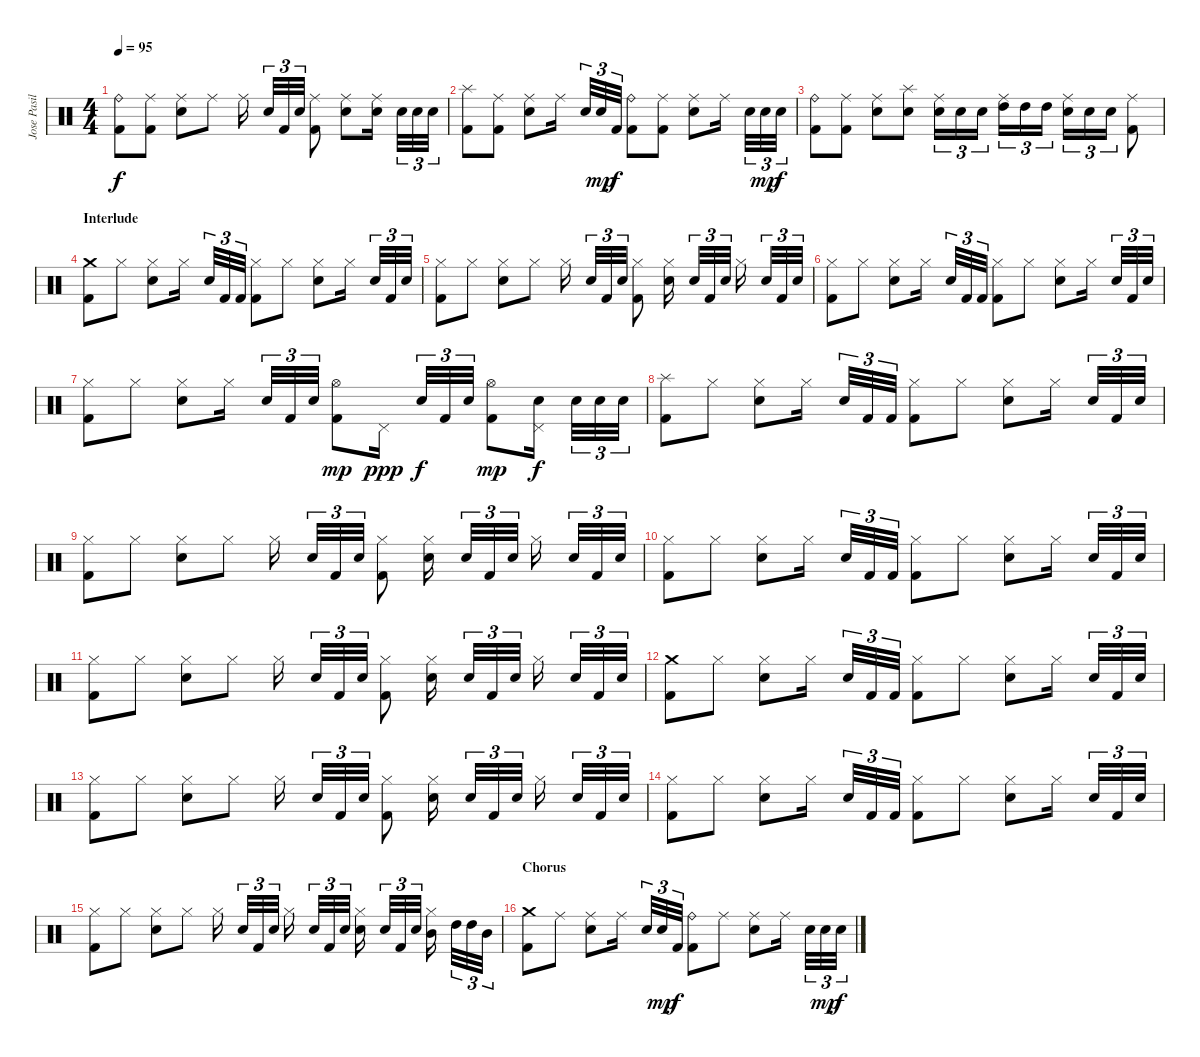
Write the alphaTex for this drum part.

\track ("Jose Pasillas II - Drums" "Jose Pasil") {instrument percussion}
\staff {score}
\articulation defaults
\ts (4 4)
\tempo 95
\clef neutral
\ks aminor
("Ride (bell)" "Kick (hit) 2").8{dy f} ("Ride (middle)" "Kick (hit) 2").8 ("Ride (middle)" "Electric Snare (hit)").8 "Ride (middle)".8 "Ride (middle)".16 "Snare (hit)"{x}.32{tu (3 2)} "Kick (hit) 2".32{tu (3 2)} "Snare (hit)"{x}.32{tu (3 2)} ("Ride (middle)" "Kick (hit) 2").8 ("Ride (middle)" "Electric Snare (hit)").8 ("Ride (middle)" "Electric Snare (hit)").16 "Snare (hit)"{x}.32{tu (3 2)} "Electric Snare (hit)".32{tu (3 2)} "Snare (hit)"{x}.32{tu (3 2)} |
("Splash (hit)" "Kick (hit) 2").8 ("Ride (middle)" "Kick (hit) 2").8 ("Ride (middle)" "Electric Snare (hit)").8 "Ride (middle)".16 "Snare (hit)"{x}.32{tu (3 2)} "Electric Snare (hit)".32{tu (3 2) dy mp} "Kick (hit) 2"{x}.32{tu (3 2) dy f} ("Ride (bell)" "Kick (hit) 2").8 ("Ride (middle)" "Kick (hit) 2").8 ("Ride (middle)" "Electric Snare (hit)").8 "Ride (middle)".16 "Snare (hit)"{x}.32{tu (3 2)} "Electric Snare (hit)".32{tu (3 2) dy mp} "Snare (hit)"{x}.32{tu (3 2) dy f} |
("Ride (bell)" "Kick (hit) 2").8 ("Ride (middle)" "Kick (hit) 2").8 ("Ride (middle)" "Electric Snare (hit)").8 ("Splash (hit)" "Electric Snare (hit)").8 ("Ride (middle)" "Electric Snare (hit)").16{tu (3 2)} "Electric Snare (hit)".16{tu (3 2)} "Electric Snare (hit)".16{tu (3 2)} ("Ride (middle)" "High Tom (hit)").16{tu (3 2)} "High Tom (hit)".16{tu (3 2)} "High Tom (hit)".16{tu (3 2)} ("Ride (middle)" "Electric Snare (hit)").16{tu (3 2)} "Electric Snare (hit)".16{tu (3 2)} "Electric Snare (hit)".16{tu (3 2)} ("Ride (middle)" "Kick (hit) 2").8 |
\section ("" "Interlude")
("Crash medium (hit)" "Kick (hit) 2").8 "Hi-Hat (closed)".8 ("Hi-Hat (closed)" "Electric Snare (hit)").8 "Hi-Hat (closed)".16 "Snare (hit)"{x}.32{tu (3 2)} "Kick (hit) 2".32{tu (3 2)} "Kick (hit) 2"{x}.32{tu (3 2)} ("Hi-Hat (closed)" "Kick (hit) 2").8 "Hi-Hat (closed)".8 ("Hi-Hat (closed)" "Electric Snare (hit)").8 "Hi-Hat (closed)".16 "Snare (hit)"{x}.32{tu (3 2)} "Kick (hit) 2".32{tu (3 2)} "Snare (hit)"{x}.32{tu (3 2)} |
("Hi-Hat (closed)" "Kick (hit) 2").8 "Hi-Hat (closed)".8 ("Hi-Hat (closed)" "Electric Snare (hit)").8 "Hi-Hat (closed)".8 "Hi-Hat (closed)".16 "Snare (hit)"{x}.32{tu (3 2)} "Kick (hit) 2".32{tu (3 2)} "Snare (hit)"{x}.32{tu (3 2)} ("Hi-Hat (closed)" "Kick (hit) 2").8 ("Hi-Hat (closed)" "Electric Snare (hit)").16 "Snare (hit)"{x}.32{tu (3 2)} "Kick (hit) 2".32{tu (3 2)} "Snare (hit)"{x}.32{tu (3 2)} "Hi-Hat (closed)".16 "Snare (hit)"{x}.32{tu (3 2)} "Kick (hit) 2".32{tu (3 2)} "Snare (hit)"{x}.32{tu (3 2)} |
("Hi-Hat (closed)" "Kick (hit) 2").8 "Hi-Hat (closed)".8 ("Hi-Hat (closed)" "Electric Snare (hit)").8 "Hi-Hat (closed)".16 "Snare (hit)"{x}.32{tu (3 2)} "Kick (hit) 2".32{tu (3 2)} "Kick (hit) 2"{x}.32{tu (3 2)} ("Hi-Hat (closed)" "Kick (hit) 2").8 "Hi-Hat (closed)".8 ("Hi-Hat (closed)" "Electric Snare (hit)").8 "Hi-Hat (closed)".16 "Snare (hit)"{x}.32{tu (3 2)} "Kick (hit) 2".32{tu (3 2)} "Snare (hit)"{x}.32{tu (3 2)} |
("Hi-Hat (closed)" "Kick (hit) 2").8 "Hi-Hat (closed)".8 ("Hi-Hat (closed)" "Electric Snare (hit)").8 "Hi-Hat (closed)".16 "Snare (hit)"{x}.32{tu (3 2)} "Kick (hit) 2".32{tu (3 2)} "Snare (hit)"{x}.32{tu (3 2)} ("Hi-Hat (open)" "Kick (hit) 2").8{dy mp} "Pedal Hi-Hat (hit)".16{dy ppp} "Snare (hit)"{x}.32{tu (3 2) dy f} "Kick (hit) 2".32{tu (3 2)} "Snare (hit)"{x}.32{tu (3 2)} ("Hi-Hat (open)" "Kick (hit) 2").8{dy mp} ("Pedal Hi-Hat (hit)" "Electric Snare (hit)").16{dy f} "Snare (hit)"{x}.32{tu (3 2)} "Electric Snare (hit)".32{tu (3 2)} "Electric Snare (hit)"{x}.32{tu (3 2)} |
("Splash (hit)" "Kick (hit) 2").8 "Hi-Hat (closed)".8 ("Hi-Hat (closed)" "Electric Snare (hit)").8 "Hi-Hat (closed)".16 "Snare (hit)"{x}.32{tu (3 2)} "Kick (hit) 2".32{tu (3 2)} "Kick (hit) 2"{x}.32{tu (3 2)} ("Hi-Hat (closed)" "Kick (hit) 2").8 "Hi-Hat (closed)".8 ("Hi-Hat (closed)" "Electric Snare (hit)").8 "Hi-Hat (closed)".16 "Snare (hit)"{x}.32{tu (3 2)} "Kick (hit) 2".32{tu (3 2)} "Snare (hit)"{x}.32{tu (3 2)} |
("Hi-Hat (closed)" "Kick (hit) 2").8 "Hi-Hat (closed)".8 ("Hi-Hat (closed)" "Electric Snare (hit)").8 "Hi-Hat (closed)".8 "Hi-Hat (closed)".16 "Snare (hit)"{x}.32{tu (3 2)} "Kick (hit) 2".32{tu (3 2)} "Snare (hit)"{x}.32{tu (3 2)} ("Hi-Hat (closed)" "Kick (hit) 2").8 ("Hi-Hat (closed)" "Electric Snare (hit)").16 "Snare (hit)"{x}.32{tu (3 2)} "Kick (hit) 2".32{tu (3 2)} "Snare (hit)"{x}.32{tu (3 2)} "Hi-Hat (closed)".16 "Snare (hit)"{x}.32{tu (3 2)} "Kick (hit) 2".32{tu (3 2)} "Snare (hit)"{x}.32{tu (3 2)} |
("Hi-Hat (closed)" "Kick (hit) 2").8 "Hi-Hat (closed)".8 ("Hi-Hat (closed)" "Electric Snare (hit)").8 "Hi-Hat (closed)".16 "Snare (hit)"{x}.32{tu (3 2)} "Kick (hit) 2".32{tu (3 2)} "Kick (hit) 2"{x}.32{tu (3 2)} ("Hi-Hat (closed)" "Kick (hit) 2").8 "Hi-Hat (closed)".8 ("Hi-Hat (closed)" "Electric Snare (hit)").8 "Hi-Hat (closed)".16 "Snare (hit)"{x}.32{tu (3 2)} "Kick (hit) 2".32{tu (3 2)} "Snare (hit)"{x}.32{tu (3 2)} |
("Hi-Hat (closed)" "Kick (hit) 2").8 "Hi-Hat (closed)".8 ("Hi-Hat (closed)" "Electric Snare (hit)").8 "Hi-Hat (closed)".8 "Hi-Hat (closed)".16 "Snare (hit)"{x}.32{tu (3 2)} "Kick (hit) 2".32{tu (3 2)} "Snare (hit)"{x}.32{tu (3 2)} ("Hi-Hat (closed)" "Kick (hit) 2").8 ("Hi-Hat (closed)" "Electric Snare (hit)").16 "Snare (hit)"{x}.32{tu (3 2)} "Kick (hit) 2".32{tu (3 2)} "Snare (hit)"{x}.32{tu (3 2)} "Hi-Hat (closed)".16 "Snare (hit)"{x}.32{tu (3 2)} "Kick (hit) 2".32{tu (3 2)} "Snare (hit)"{x}.32{tu (3 2)} |
("Crash medium (hit)" "Kick (hit) 2").8 "Hi-Hat (closed)".8 ("Hi-Hat (closed)" "Electric Snare (hit)").8 "Hi-Hat (closed)".16 "Snare (hit)"{x}.32{tu (3 2)} "Kick (hit) 2".32{tu (3 2)} "Kick (hit) 2"{x}.32{tu (3 2)} ("Hi-Hat (closed)" "Kick (hit) 2").8 "Hi-Hat (closed)".8 ("Hi-Hat (closed)" "Electric Snare (hit)").8 "Hi-Hat (closed)".16 "Snare (hit)"{x}.32{tu (3 2)} "Kick (hit) 2".32{tu (3 2)} "Snare (hit)"{x}.32{tu (3 2)} |
("Hi-Hat (closed)" "Kick (hit) 2").8 "Hi-Hat (closed)".8 ("Hi-Hat (closed)" "Electric Snare (hit)").8 "Hi-Hat (closed)".8 "Hi-Hat (closed)".16 "Snare (hit)"{x}.32{tu (3 2)} "Kick (hit) 2".32{tu (3 2)} "Snare (hit)"{x}.32{tu (3 2)} ("Hi-Hat (closed)" "Kick (hit) 2").8 ("Hi-Hat (closed)" "Electric Snare (hit)").16 "Snare (hit)"{x}.32{tu (3 2)} "Kick (hit) 2".32{tu (3 2)} "Snare (hit)"{x}.32{tu (3 2)} "Hi-Hat (closed)".16 "Snare (hit)"{x}.32{tu (3 2)} "Kick (hit) 2".32{tu (3 2)} "Snare (hit)"{x}.32{tu (3 2)} |
("Hi-Hat (closed)" "Kick (hit) 2").8 "Hi-Hat (closed)".8 ("Hi-Hat (closed)" "Electric Snare (hit)").8 "Hi-Hat (closed)".16 "Snare (hit)"{x}.32{tu (3 2)} "Kick (hit) 2".32{tu (3 2)} "Kick (hit) 2"{x}.32{tu (3 2)} ("Hi-Hat (closed)" "Kick (hit) 2").8 "Hi-Hat (closed)".8 ("Hi-Hat (closed)" "Electric Snare (hit)").8 "Hi-Hat (closed)".16 "Snare (hit)"{x}.32{tu (3 2)} "Kick (hit) 2".32{tu (3 2)} "Snare (hit)"{x}.32{tu (3 2)} |
("Hi-Hat (closed)" "Kick (hit) 2").8 "Hi-Hat (closed)".8 ("Hi-Hat (closed)" "Electric Snare (hit)").8 "Hi-Hat (closed)".8 "Hi-Hat (closed)".16 "Snare (hit)"{x}.32{tu (3 2)} "Kick (hit) 2".32{tu (3 2)} "Snare (hit)"{x}.32{tu (3 2)} "Hi-Hat (closed)".16 "Snare (hit)"{x}.32{tu (3 2)} "Kick (hit) 2".32{tu (3 2)} "Snare (hit)"{x}.32{tu (3 2)} ("Hi-Hat (closed)" "Electric Snare (hit)").16 "Snare (hit)"{x}.32{tu (3 2)} "Kick (hit) 2".32{tu (3 2)} "Snare (hit)"{x}.32{tu (3 2)} ("Hi-Hat (closed)" "Mid Tom (hit)").16 "High Tom (hit)"{x}.32{tu (3 2)} "High Tom (hit)".32{tu (3 2)} "Mid Tom (hit)"{x}.32{tu (3 2)} |
\section ("" "Chorus")
("Crash medium (hit)" "Kick (hit) 2").8 "Ride (middle)".8 ("Ride (middle)" "Electric Snare (hit)").8 "Ride (middle)".16 "Snare (hit)"{x}.32{tu (3 2)} "Electric Snare (hit)".32{tu (3 2) dy mp} "Kick (hit) 2"{x}.32{tu (3 2) dy f} ("Ride (bell)" "Kick (hit) 2").8 "Ride (middle)".8 ("Ride (middle)" "Electric Snare (hit)").8 "Ride (middle)".16 "Snare (hit)"{x}.32{tu (3 2)} "Electric Snare (hit)".32{tu (3 2) dy mp} "Snare (hit)"{x}.32{tu (3 2) dy f}
